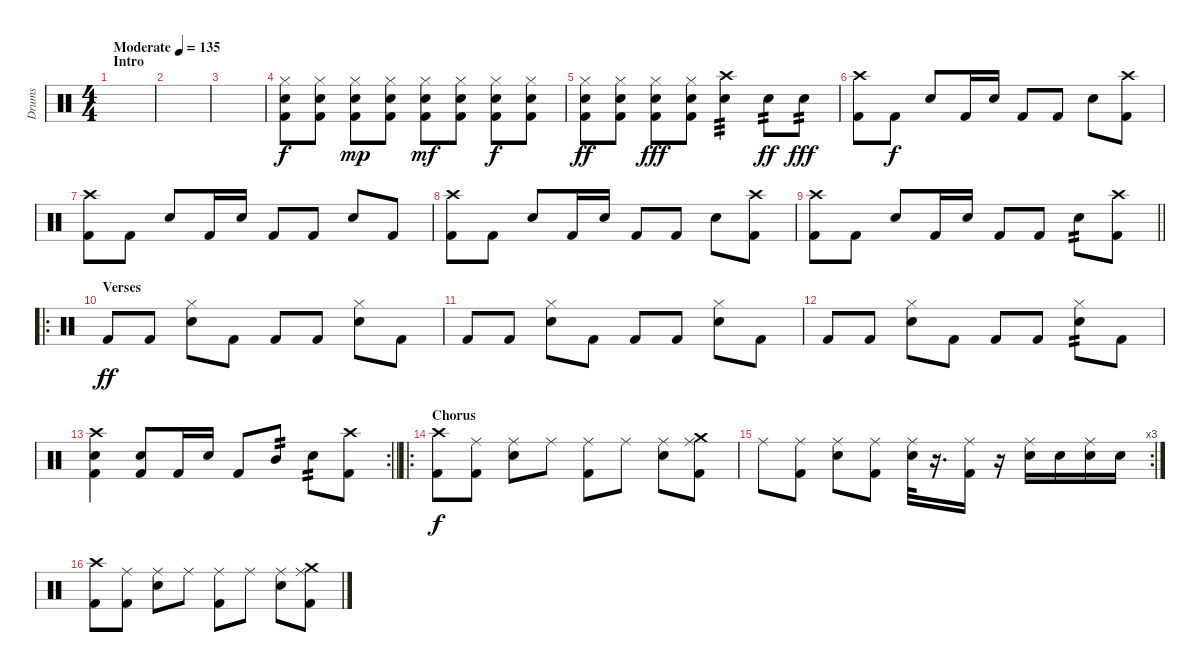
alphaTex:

\track ("Drums" "Drums") {instrument percussion}
\staff {score}
\articulation defaults
\ts (4 4)
\section ("" "Intro")
\tempo (135 "Moderate")
\clef neutral
\ks c
|
|
|
("Kick (hit) 2" "Electric Snare (hit)" "Hi-Hat (closed)").8 ("Kick (hit) 2" "Electric Snare (hit)" "Hi-Hat (closed)").8 ("Kick (hit) 2" "Electric Snare (hit)" "Hi-Hat (closed)").8{dy mp} ("Kick (hit) 2" "Electric Snare (hit)" "Hi-Hat (closed)").8 ("Kick (hit) 2" "Electric Snare (hit)" "Hi-Hat (closed)").8{dy mf} ("Kick (hit) 2" "Electric Snare (hit)" "Hi-Hat (closed)").8 ("Kick (hit) 2" "Electric Snare (hit)" "Hi-Hat (closed)").8{dy f} ("Kick (hit) 2" "Electric Snare (hit)" "Hi-Hat (closed)").8 |
("Kick (hit) 2" "Electric Snare (hit)" "Hi-Hat (closed)").8{dy ff} ("Kick (hit) 2" "Electric Snare (hit)" "Hi-Hat (closed)").8 ("Kick (hit) 2" "Electric Snare (hit)" "Hi-Hat (closed)").8{dy fff} ("Kick (hit) 2" "Electric Snare (hit)" "Hi-Hat (closed)").8 ("Electric Snare (hit)" "Crash high (hit)").4{tp 3} "Electric Snare (hit)".8{tp 2 dy ff} "Electric Snare (hit)".8{tp 2 dy fff} |
("Kick (hit) 2" "Crash high (hit)").8 "Kick (hit) 2".8{dy f} "Electric Snare (hit)".8 "Kick (hit) 2".16 "Electric Snare (hit)".16 "Kick (hit) 2".8 "Kick (hit) 2".8 "Electric Snare (hit)".8 ("Kick (hit) 2" "Crash high (hit)").8 |
("Kick (hit) 2" "Crash high (hit)").8 "Kick (hit) 2".8 "Electric Snare (hit)".8 "Kick (hit) 2".16 "Electric Snare (hit)".16 "Kick (hit) 2".8 "Kick (hit) 2".8 "Electric Snare (hit)".8 "Kick (hit) 2".8 |
("Kick (hit) 2" "Crash high (hit)").8 "Kick (hit) 2".8 "Electric Snare (hit)".8 "Kick (hit) 2".16 "Electric Snare (hit)".16 "Kick (hit) 2".8 "Kick (hit) 2".8 "Electric Snare (hit)".8 ("Kick (hit) 2" "Crash high (hit)").8 |
\barLineRight lightlight
("Kick (hit) 2" "Crash high (hit)").8 "Kick (hit) 2".8 "Electric Snare (hit)".8 "Kick (hit) 2".16 "Electric Snare (hit)".16 "Kick (hit) 2".8 "Kick (hit) 2".8 "Electric Snare (hit)".8{tp 2} ("Kick (hit) 2" "Crash high (hit)").8 |
\ro
\section ("" "Verses")
"Kick (hit) 2".8{dy ff} "Kick (hit) 2".8 ("Electric Snare (hit)" "Hi-Hat (closed)").8 "Kick (hit) 2".8 "Kick (hit) 2".8 "Kick (hit) 2".8 ("Electric Snare (hit)" "Hi-Hat (closed)").8 "Kick (hit) 2".8 |
"Kick (hit) 2".8 "Kick (hit) 2".8 ("Electric Snare (hit)" "Hi-Hat (closed)").8 "Kick (hit) 2".8 "Kick (hit) 2".8 "Kick (hit) 2".8 ("Electric Snare (hit)" "Hi-Hat (closed)").8 "Kick (hit) 2".8 |
"Kick (hit) 2".8 "Kick (hit) 2".8 ("Electric Snare (hit)" "Hi-Hat (closed)").8 "Kick (hit) 2".8 "Kick (hit) 2".8 "Kick (hit) 2".8 ("Electric Snare (hit)" "Hi-Hat (closed)").8{tp 2} "Kick (hit) 2".8 |
\rc 2
\barLineRight lightlight
("Kick (hit) 2" "Crash high (hit)" "Electric Snare (hit)").4 ("Kick (hit) 2" "Electric Snare (hit)").8 "Kick (hit) 2".16 "Electric Snare (hit)".16 "Kick (hit) 2".8 "Mid Tom (hit)".8{tp 2} "Electric Snare (hit)".8{tp 2} ("Kick (hit) 2" "Crash high (hit)").8 |
\ro
\section ("" "Chorus")
("Crash high (hit)" "Kick (hit) 2").8{dy f} ("Ride (middle)" "Kick (hit) 2").8 ("Ride (middle)" "Electric Snare (hit)").8 "Ride (middle)".8 ("Ride (middle)" "Kick (hit) 2").8 "Ride (middle)".8 ("Ride (middle)" "Electric Snare (hit)").8 ("Crash medium (hit)" "Ride (middle)" "Kick (hit) 2").8 |
\rc 3 "Ride (middle)".8
("Ride (middle)" "Kick (hit) 2").8 ("Ride (middle)" "Electric Snare (hit)").8 ("Ride (middle)" "Kick (hit) 2").8 ("Ride (middle)" "Electric Snare (hit)").32 r.16{d} ("Ride (middle)" "Kick (hit) 2").16 r.16 ("Ride (middle)" "Electric Snare (hit)").16 "Electric Snare (hit)".16 ("Ride (middle)" "Electric Snare (hit)").16 "Electric Snare (hit)".16 |
("Crash high (hit)" "Kick (hit) 2").8 ("Ride (middle)" "Kick (hit) 2").8 ("Ride (middle)" "Electric Snare (hit)").8 "Ride (middle)".8 ("Ride (middle)" "Kick (hit) 2").8 "Ride (middle)".8 ("Ride (middle)" "Electric Snare (hit)").8 ("Crash medium (hit)" "Ride (middle)" "Kick (hit) 2").8
